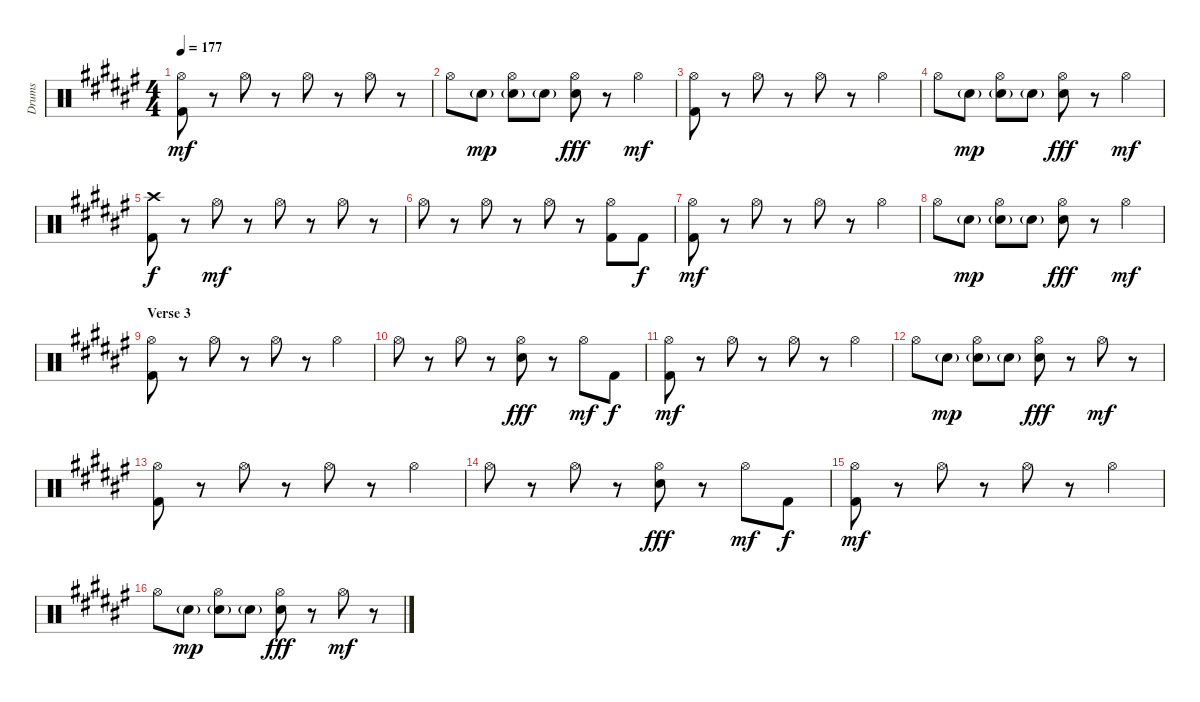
\track ("Drums" "Drums") {instrument percussion}
\staff {score}
\articulation defaults
\ts (4 4)
\tempo 177
\clef neutral
\ks d#minor
("Hi-Hat (open)" "Kick (hit) 2").8{dy mf} r.8 "Hi-Hat (open)".8 r.8 "Hi-Hat (open)".8 r.8 "Hi-Hat (open)".8 r.8 |
"Hi-Hat (open)".8 "Snare (hit) 2"{g}.8{dy mp} ("Hi-Hat (open)" "Snare (hit) 2"{g}).8 "Snare (hit) 2"{g}.8 ("Hi-Hat (open)" "Snare (hit) 2").8{dy fff} r.8 "Hi-Hat (open)".4{dy mf} |
("Hi-Hat (open)" "Kick (hit) 2").8 r.8 "Hi-Hat (open)".8 r.8 "Hi-Hat (open)".8 r.8 "Hi-Hat (open)".4 |
"Hi-Hat (open)".8 "Snare (hit) 2"{g}.8{dy mp} ("Hi-Hat (open)" "Snare (hit) 2"{g}).8 "Snare (hit) 2"{g}.8 ("Hi-Hat (open)" "Snare (hit) 2").8{dy fff} r.8 "Hi-Hat (open)".4{dy mf} |
("Crash high (hit)" "Kick (hit) 2").8{dy f} r.8 "Hi-Hat (open)".8{dy mf} r.8 "Hi-Hat (open)".8 r.8 "Hi-Hat (open)".8 r.8 |
"Hi-Hat (open)".8 r.8 "Hi-Hat (open)".8 r.8 "Hi-Hat (open)".8 r.8 ("Hi-Hat (open)" "Kick (hit) 2").8 "Kick (hit) 2".8{dy f} |
("Hi-Hat (open)" "Kick (hit) 2").8{dy mf} r.8 "Hi-Hat (open)".8 r.8 "Hi-Hat (open)".8 r.8 "Hi-Hat (open)".4 |
"Hi-Hat (open)".8 "Snare (hit) 2"{g}.8{dy mp} ("Hi-Hat (open)" "Snare (hit) 2"{g}).8 "Snare (hit) 2"{g}.8 ("Hi-Hat (open)" "Snare (hit) 2").8{dy fff} r.8 "Hi-Hat (open)".4{dy mf} |
\section ("" "Verse 3")
("Hi-Hat (open)" "Kick (hit) 2").8 r.8 "Hi-Hat (open)".8 r.8 "Hi-Hat (open)".8 r.8 "Hi-Hat (open)".4 |
"Hi-Hat (open)".8 r.8 "Hi-Hat (open)".8 r.8 ("Hi-Hat (open)" "Snare (hit) 2").8{dy fff} r.8 "Hi-Hat (open)".8{dy mf} "Kick (hit) 2".8{dy f} |
("Hi-Hat (open)" "Kick (hit) 2").8{dy mf} r.8 "Hi-Hat (open)".8 r.8 "Hi-Hat (open)".8 r.8 "Hi-Hat (open)".4 |
"Hi-Hat (open)".8 "Snare (hit) 2"{g}.8{dy mp} ("Hi-Hat (open)" "Snare (hit) 2"{g}).8 "Snare (hit) 2"{g}.8 ("Hi-Hat (open)" "Snare (hit) 2").8{dy fff} r.8 "Hi-Hat (open)".8{dy mf} r.8 |
("Hi-Hat (open)" "Kick (hit) 2").8 r.8 "Hi-Hat (open)".8 r.8 "Hi-Hat (open)".8 r.8 "Hi-Hat (open)".4 |
"Hi-Hat (open)".8 r.8 "Hi-Hat (open)".8 r.8 ("Hi-Hat (open)" "Snare (hit) 2").8{dy fff} r.8 "Hi-Hat (open)".8{dy mf} "Kick (hit) 2".8{dy f} |
("Hi-Hat (open)" "Kick (hit) 2").8{dy mf} r.8 "Hi-Hat (open)".8 r.8 "Hi-Hat (open)".8 r.8 "Hi-Hat (open)".4 |
"Hi-Hat (open)".8 "Snare (hit) 2"{g}.8{dy mp} ("Hi-Hat (open)" "Snare (hit) 2"{g}).8 "Snare (hit) 2"{g}.8 ("Hi-Hat (open)" "Snare (hit) 2").8{dy fff} r.8 "Hi-Hat (open)".8{dy mf} r.8
